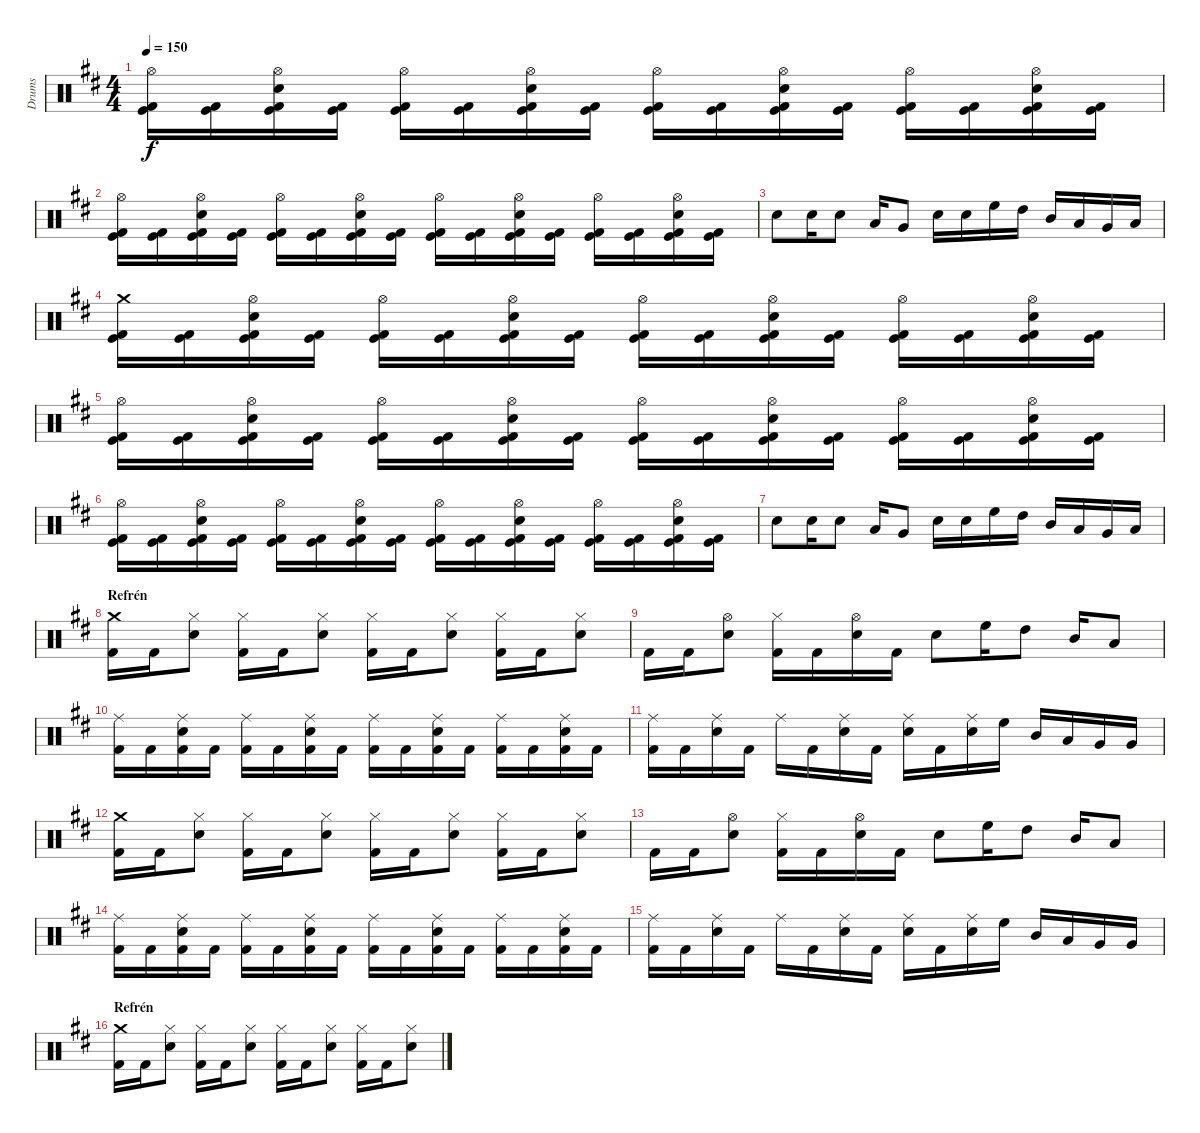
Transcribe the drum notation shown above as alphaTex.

\track ("Drums" "Drums") {instrument percussion}
\staff {score}
\articulation defaults
\ts (4 4)
\tempo 150
\clef neutral
\ks d
("Hi-Hat (open)" "Kick (hit) 2" "Kick (hit)").16{dy f} ("Kick (hit) 2" "Kick (hit)").16 ("Hi-Hat (open)" "Snare (hit) 2" "Kick (hit) 2" "Kick (hit)").16 ("Kick (hit) 2" "Kick (hit)").16 ("Hi-Hat (open)" "Kick (hit) 2" "Kick (hit)").16 ("Kick (hit) 2" "Kick (hit)").16 ("Hi-Hat (open)" "Snare (hit) 2" "Kick (hit) 2" "Kick (hit)").16 ("Kick (hit) 2" "Kick (hit)").16 ("Hi-Hat (open)" "Kick (hit) 2" "Kick (hit)").16 ("Kick (hit) 2" "Kick (hit)").16 ("Hi-Hat (open)" "Snare (hit) 2" "Kick (hit) 2" "Kick (hit)").16 ("Kick (hit) 2" "Kick (hit)").16 ("Hi-Hat (open)" "Kick (hit) 2" "Kick (hit)").16 ("Kick (hit) 2" "Kick (hit)").16 ("Hi-Hat (open)" "Snare (hit) 2" "Kick (hit) 2" "Kick (hit)").16 ("Kick (hit) 2" "Kick (hit)").16 |
("Hi-Hat (open)" "Kick (hit) 2" "Kick (hit)").16 ("Kick (hit) 2" "Kick (hit)").16 ("Hi-Hat (open)" "Snare (hit) 2" "Kick (hit) 2" "Kick (hit)").16 ("Kick (hit) 2" "Kick (hit)").16 ("Hi-Hat (open)" "Kick (hit) 2" "Kick (hit)").16 ("Kick (hit) 2" "Kick (hit)").16 ("Hi-Hat (open)" "Snare (hit) 2" "Kick (hit) 2" "Kick (hit)").16 ("Kick (hit) 2" "Kick (hit)").16 ("Hi-Hat (open)" "Kick (hit) 2" "Kick (hit)").16 ("Kick (hit) 2" "Kick (hit)").16 ("Hi-Hat (open)" "Snare (hit) 2" "Kick (hit) 2" "Kick (hit)").16 ("Kick (hit) 2" "Kick (hit)").16 ("Hi-Hat (open)" "Kick (hit) 2" "Kick (hit)").16 ("Kick (hit) 2" "Kick (hit)").16 ("Hi-Hat (open)" "Snare (hit) 2" "Kick (hit) 2" "Kick (hit)").16 ("Kick (hit) 2" "Kick (hit)").16 |
"Snare (hit) 2".8 "Snare (hit) 2".16 "Snare (hit) 2".8 "Low Tom (hit)".16 "Very Low Tom (hit)".8 "Snare (hit) 2".16 "Snare (hit) 2".16 "High Floor Tom (hit)".16 "High Tom (hit)".16 "Mid Tom (hit)".16 "Low Tom (hit)".16 "Very Low Tom (hit)".16 "Low Floor Tom (hit)".16 |
("Crash medium (hit)" "Kick (hit) 2" "Kick (hit)").16 ("Kick (hit) 2" "Kick (hit)").16 ("Hi-Hat (open)" "Snare (hit) 2" "Kick (hit) 2" "Kick (hit)").16 ("Kick (hit) 2" "Kick (hit)").16 ("Hi-Hat (open)" "Kick (hit) 2" "Kick (hit)").16 ("Kick (hit) 2" "Kick (hit)").16 ("Hi-Hat (open)" "Snare (hit) 2" "Kick (hit) 2" "Kick (hit)").16 ("Kick (hit) 2" "Kick (hit)").16 ("Hi-Hat (open)" "Kick (hit) 2" "Kick (hit)").16 ("Kick (hit) 2" "Kick (hit)").16 ("Hi-Hat (open)" "Snare (hit) 2" "Kick (hit) 2" "Kick (hit)").16 ("Kick (hit) 2" "Kick (hit)").16 ("Hi-Hat (open)" "Kick (hit) 2" "Kick (hit)").16 ("Kick (hit) 2" "Kick (hit)").16 ("Hi-Hat (open)" "Snare (hit) 2" "Kick (hit) 2" "Kick (hit)").16 ("Kick (hit) 2" "Kick (hit)").16 |
("Hi-Hat (open)" "Kick (hit) 2" "Kick (hit)").16 ("Kick (hit) 2" "Kick (hit)").16 ("Hi-Hat (open)" "Snare (hit) 2" "Kick (hit) 2" "Kick (hit)").16 ("Kick (hit) 2" "Kick (hit)").16 ("Hi-Hat (open)" "Kick (hit) 2" "Kick (hit)").16 ("Kick (hit) 2" "Kick (hit)").16 ("Hi-Hat (open)" "Snare (hit) 2" "Kick (hit) 2" "Kick (hit)").16 ("Kick (hit) 2" "Kick (hit)").16 ("Hi-Hat (open)" "Kick (hit) 2" "Kick (hit)").16 ("Kick (hit) 2" "Kick (hit)").16 ("Hi-Hat (open)" "Snare (hit) 2" "Kick (hit) 2" "Kick (hit)").16 ("Kick (hit) 2" "Kick (hit)").16 ("Hi-Hat (open)" "Kick (hit) 2" "Kick (hit)").16 ("Kick (hit) 2" "Kick (hit)").16 ("Hi-Hat (open)" "Snare (hit) 2" "Kick (hit) 2" "Kick (hit)").16 ("Kick (hit) 2" "Kick (hit)").16 |
("Hi-Hat (open)" "Kick (hit) 2" "Kick (hit)").16 ("Kick (hit) 2" "Kick (hit)").16 ("Hi-Hat (open)" "Snare (hit) 2" "Kick (hit) 2" "Kick (hit)").16 ("Kick (hit) 2" "Kick (hit)").16 ("Hi-Hat (open)" "Kick (hit) 2" "Kick (hit)").16 ("Kick (hit) 2" "Kick (hit)").16 ("Hi-Hat (open)" "Snare (hit) 2" "Kick (hit) 2" "Kick (hit)").16 ("Kick (hit) 2" "Kick (hit)").16 ("Hi-Hat (open)" "Kick (hit) 2" "Kick (hit)").16 ("Kick (hit) 2" "Kick (hit)").16 ("Hi-Hat (open)" "Snare (hit) 2" "Kick (hit) 2" "Kick (hit)").16 ("Kick (hit) 2" "Kick (hit)").16 ("Hi-Hat (open)" "Kick (hit) 2" "Kick (hit)").16 ("Kick (hit) 2" "Kick (hit)").16 ("Hi-Hat (open)" "Snare (hit) 2" "Kick (hit) 2" "Kick (hit)").16 ("Kick (hit) 2" "Kick (hit)").16 |
"Snare (hit) 2".8 "Snare (hit) 2".16 "Snare (hit) 2".8 "Low Tom (hit)".16 "Very Low Tom (hit)".8 "Snare (hit) 2".16 "Snare (hit) 2".16 "High Floor Tom (hit)".16 "High Tom (hit)".16 "Mid Tom (hit)".16 "Low Tom (hit)".16 "Very Low Tom (hit)".16 "Low Floor Tom (hit)".16 |
\section ("" "Refrén")
("Crash medium (hit)" "Kick (hit) 2").16 "Kick (hit) 2".16 ("Hi-Hat (closed)" "Snare (hit) 2").8 ("Hi-Hat (closed)" "Kick (hit) 2").16 "Kick (hit) 2".16 ("Hi-Hat (closed)" "Snare (hit) 2").8 ("Hi-Hat (closed)" "Kick (hit) 2").16 "Kick (hit) 2".16 ("Hi-Hat (closed)" "Snare (hit) 2").8 ("Hi-Hat (closed)" "Kick (hit) 2").16 "Kick (hit) 2".16 ("Hi-Hat (closed)" "Snare (hit) 2").8 |
"Kick (hit) 2".16 "Kick (hit) 2".16 ("Hi-Hat (open)" "Snare (hit) 2").8 ("Hi-Hat (closed)" "Kick (hit) 2").16 "Kick (hit) 2".16 ("Hi-Hat (open)" "Snare (hit) 2").16 "Kick (hit) 2".16 "Snare (hit) 2".8 "High Floor Tom (hit)".16 "High Tom (hit)".8 "Mid Tom (hit)".16 "Low Tom (hit)".8 |
("Ride (middle)" "Kick (hit) 2").16 "Kick (hit) 2".16 ("Ride (middle)" "Snare (hit) 2" "Kick (hit) 2").16 "Kick (hit) 2".16 ("Ride (middle)" "Kick (hit) 2").16 "Kick (hit) 2".16 ("Ride (middle)" "Snare (hit) 2" "Kick (hit) 2").16 "Kick (hit) 2".16 ("Ride (middle)" "Kick (hit) 2").16 "Kick (hit) 2".16 ("Ride (middle)" "Snare (hit) 2" "Kick (hit) 2").16 "Kick (hit) 2".16 ("Ride (middle)" "Kick (hit) 2").16 "Kick (hit) 2".16 ("Ride (middle)" "Snare (hit) 2" "Kick (hit) 2").16 "Kick (hit) 2".16 |
("Ride (middle)" "Kick (hit) 2").16 "Kick (hit) 2".16 ("Ride (middle)" "Snare (hit) 2").16 "Kick (hit) 2".16 "Ride (middle)".16 "Kick (hit) 2".16 ("Ride (middle)" "Snare (hit) 2").16 "Kick (hit) 2".16 ("Ride (middle)" "Snare (hit) 2").16 "Kick (hit) 2".16 ("Ride (middle)" "Snare (hit) 2").16 "High Floor Tom (hit)".16 "Mid Tom (hit)".16 "Low Tom (hit)".16 "Very Low Tom (hit)".16 "Very Low Tom (hit)".16 |
("Crash medium (hit)" "Kick (hit) 2").16 "Kick (hit) 2".16 ("Hi-Hat (closed)" "Snare (hit) 2").8 ("Hi-Hat (closed)" "Kick (hit) 2").16 "Kick (hit) 2".16 ("Hi-Hat (closed)" "Snare (hit) 2").8 ("Hi-Hat (closed)" "Kick (hit) 2").16 "Kick (hit) 2".16 ("Hi-Hat (closed)" "Snare (hit) 2").8 ("Hi-Hat (closed)" "Kick (hit) 2").16 "Kick (hit) 2".16 ("Hi-Hat (closed)" "Snare (hit) 2").8 |
"Kick (hit) 2".16 "Kick (hit) 2".16 ("Hi-Hat (open)" "Snare (hit) 2").8 ("Hi-Hat (closed)" "Kick (hit) 2").16 "Kick (hit) 2".16 ("Hi-Hat (open)" "Snare (hit) 2").16 "Kick (hit) 2".16 "Snare (hit) 2".8 "High Floor Tom (hit)".16 "High Tom (hit)".8 "Mid Tom (hit)".16 "Low Tom (hit)".8 |
("Ride (middle)" "Kick (hit) 2").16 "Kick (hit) 2".16 ("Ride (middle)" "Snare (hit) 2" "Kick (hit) 2").16 "Kick (hit) 2".16 ("Ride (middle)" "Kick (hit) 2").16 "Kick (hit) 2".16 ("Ride (middle)" "Snare (hit) 2" "Kick (hit) 2").16 "Kick (hit) 2".16 ("Ride (middle)" "Kick (hit) 2").16 "Kick (hit) 2".16 ("Ride (middle)" "Snare (hit) 2" "Kick (hit) 2").16 "Kick (hit) 2".16 ("Ride (middle)" "Kick (hit) 2").16 "Kick (hit) 2".16 ("Ride (middle)" "Snare (hit) 2" "Kick (hit) 2").16 "Kick (hit) 2".16 |
("Ride (middle)" "Kick (hit) 2").16 "Kick (hit) 2".16 ("Ride (middle)" "Snare (hit) 2").16 "Kick (hit) 2".16 "Ride (middle)".16 "Kick (hit) 2".16 ("Ride (middle)" "Snare (hit) 2").16 "Kick (hit) 2".16 ("Ride (middle)" "Snare (hit) 2").16 "Kick (hit) 2".16 ("Ride (middle)" "Snare (hit) 2").16 "High Floor Tom (hit)".16 "Mid Tom (hit)".16 "Low Tom (hit)".16 "Very Low Tom (hit)".16 "Very Low Tom (hit)".16 |
\section ("" "Refrén")
("Crash medium (hit)" "Kick (hit) 2").16 "Kick (hit) 2".16 ("Hi-Hat (closed)" "Snare (hit) 2").8 ("Hi-Hat (closed)" "Kick (hit) 2").16 "Kick (hit) 2".16 ("Hi-Hat (closed)" "Snare (hit) 2").8 ("Hi-Hat (closed)" "Kick (hit) 2").16 "Kick (hit) 2".16 ("Hi-Hat (closed)" "Snare (hit) 2").8 ("Hi-Hat (closed)" "Kick (hit) 2").16 "Kick (hit) 2".16 ("Hi-Hat (closed)" "Snare (hit) 2").8
